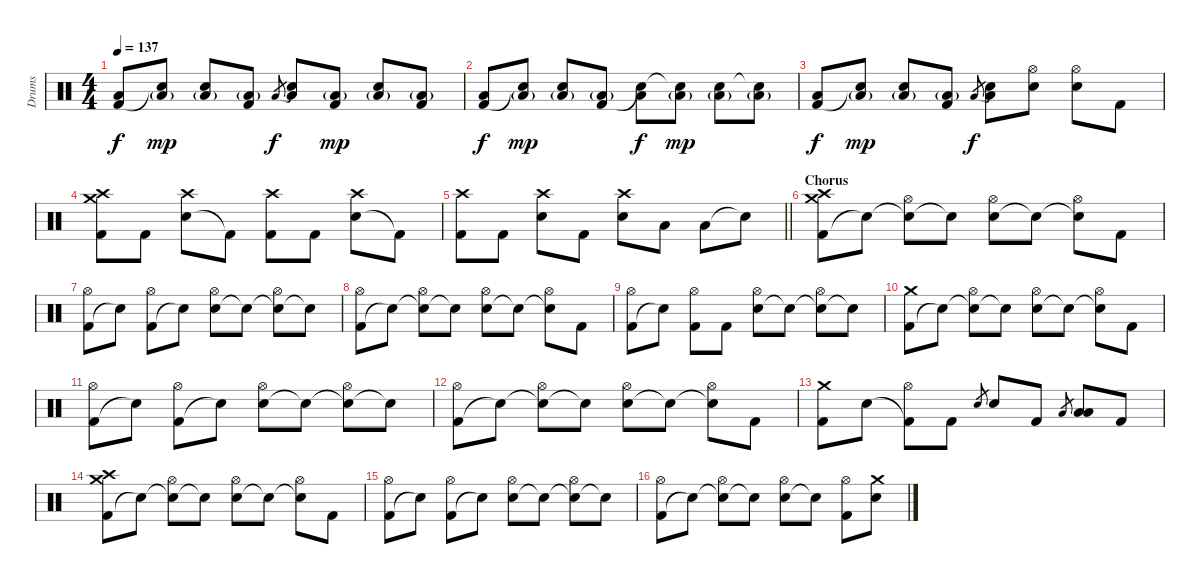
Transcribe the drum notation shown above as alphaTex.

\track ("Drums" "Drums") {instrument percussion}
\staff {score}
\articulation defaults
\ts (4 4)
\tempo 137
\clef neutral
\ks c
("Kick (hit) 2" "Low Floor Tom (hit)").8{dy f} ("Snare (hit)"{t} "Low Floor Tom (hit)"{g}).8{dy mp} ("Electric Snare (hit)" "Low Floor Tom (hit)"{g}).8 ("Kick (hit) 2" "Low Floor Tom (hit)"{g}).8 "Low Floor Tom (hit)".8{gr dy f} ("Snare (hit)"{t} "Low Floor Tom (hit)").8 ("Kick (hit) 2" "Low Floor Tom (hit)"{g}).8{dy mp} ("Electric Snare (hit)" "Low Floor Tom (hit)"{g}).8 ("Kick (hit) 2" "Low Floor Tom (hit)"{g}).8 |
("Kick (hit) 2" "Low Floor Tom (hit)").8{dy f} ("Snare (hit)"{t} "Low Floor Tom (hit)"{g}).8{dy mp} ("Electric Snare (hit)" "Low Floor Tom (hit)"{g}).8 ("Kick (hit) 2" "Low Floor Tom (hit)"{g}).8 ("Snare (hit)"{t} "Low Floor Tom (hit)").8{dy f} ("Snare (hit)"{t} "Low Floor Tom (hit)"{g}).8{dy mp} ("Electric Snare (hit)" "Low Floor Tom (hit)"{g}).8 ("Electric Snare (hit)"{t} "Low Floor Tom (hit)"{g}).8 |
("Kick (hit) 2" "Low Floor Tom (hit)").8{dy f} ("Snare (hit)"{t} "Low Floor Tom (hit)"{g}).8{dy mp} ("Electric Snare (hit)" "Low Floor Tom (hit)"{g}).8 ("Kick (hit) 2" "Low Floor Tom (hit)"{g}).8 "Low Floor Tom (hit)".8{gr dy f} ("Snare (hit)"{t} "Low Floor Tom (hit)").8 ("Electric Snare (hit)" "Hi-Hat (open)").8 ("Electric Snare (hit)" "Hi-Hat (open)").8 "Kick (hit) 2".8 |
("Kick (hit) 2" "Crash medium (hit)" "Crash high (hit)").8 "Kick (hit) 2".8 ("Electric Snare (hit)" "Crash high (hit)").8 "Kick (hit) 2"{t}.8 ("Kick (hit) 2" "Crash high (hit)").8 "Kick (hit) 2".8 ("Electric Snare (hit)" "Crash high (hit)").8 "Kick (hit) 2"{t}.8 |
\barLineRight lightlight
("Kick (hit) 2" "Crash high (hit)").8 "Kick (hit) 2".8 ("Electric Snare (hit)" "Crash high (hit)").8 "Kick (hit) 2".8 ("Electric Snare (hit)" "Crash high (hit)").8 "Low Tom (hit)".8 "Low Tom (hit)".8 "Snare (hit)"{t}.8 |
\section ("" "Chorus")
("Kick (hit) 2" "Crash medium (hit)" "Crash high (hit)").8 "Snare (hit)"{t}.8 ("Electric Snare (hit)"{t} "Hi-Hat (open)").8 "Snare (hit)"{t}.8 ("Electric Snare (hit)" "Hi-Hat (open)").8 "Snare (hit)"{t}.8 ("Snare (hit)"{t} "Hi-Hat (open)").8 "Kick (hit) 2".8 |
("Kick (hit) 2" "Hi-Hat (open)").8 "Snare (hit)"{t}.8 ("Kick (hit) 2" "Hi-Hat (open)").8 "Snare (hit)"{t}.8 ("Electric Snare (hit)" "Hi-Hat (open)").8 "Snare (hit)"{t}.8 ("Snare (hit)"{t} "Hi-Hat (open)").8 "Snare (hit)"{t}.8 |
("Kick (hit) 2" "Hi-Hat (open)").8 "Snare (hit)"{t}.8 ("Electric Snare (hit)"{t} "Hi-Hat (open)").8 "Snare (hit)"{t}.8 ("Electric Snare (hit)" "Hi-Hat (open)").8 "Snare (hit)"{t}.8 ("Snare (hit)"{t} "Hi-Hat (open)").8 "Kick (hit) 2".8 |
("Kick (hit) 2" "Hi-Hat (open)").8 "Snare (hit)"{t}.8 ("Kick (hit) 2" "Hi-Hat (open)").8 "Kick (hit) 2".8 ("Electric Snare (hit)" "Hi-Hat (open)").8 "Snare (hit)"{t}.8 ("Snare (hit)"{t} "Hi-Hat (open)").8 "Snare (hit)"{t}.8 |
("Kick (hit) 2" "Crash medium (hit)").8 "Snare (hit)"{t}.8 ("Electric Snare (hit)"{t} "Hi-Hat (open)").8 "Snare (hit)"{t}.8 ("Electric Snare (hit)" "Hi-Hat (open)").8 "Snare (hit)"{t}.8 ("Snare (hit)"{t} "Hi-Hat (open)").8 "Kick (hit) 2".8 |
("Kick (hit) 2" "Hi-Hat (open)").8 "Snare (hit)"{t}.8 ("Kick (hit) 2" "Hi-Hat (open)").8 "Snare (hit)"{t}.8 ("Electric Snare (hit)" "Hi-Hat (open)").8 "Snare (hit)"{t}.8 ("Snare (hit)"{t} "Hi-Hat (open)").8 "Snare (hit)"{t}.8 |
("Kick (hit) 2" "Hi-Hat (open)").8 "Snare (hit)"{t}.8 ("Electric Snare (hit)"{t} "Hi-Hat (open)").8 "Snare (hit)"{t}.8 ("Electric Snare (hit)" "Hi-Hat (open)").8 "Snare (hit)"{t}.8 ("Snare (hit)"{t} "Hi-Hat (open)").8 "Kick (hit) 2".8 |
("Kick (hit) 2" "Crash medium (hit)").8 "Electric Snare (hit)".8 ("Kick (hit) 2"{t} "Hi-Hat (open)").8 "Kick (hit) 2".8 "Electric Snare (hit)".8{gr} "Electric Snare (hit)".8 "Kick (hit) 2".8 "Low Tom (hit)".8{gr} ("Low Tom (hit)" "Low Floor Tom (hit)").8 "Kick (hit) 2".8 |
("Kick (hit) 2" "Crash medium (hit)" "Crash high (hit)").8 "Snare (hit)"{t}.8 ("Electric Snare (hit)"{t} "Hi-Hat (open)").8 "Snare (hit)"{t}.8 ("Electric Snare (hit)" "Hi-Hat (open)").8 "Snare (hit)"{t}.8 ("Snare (hit)"{t} "Hi-Hat (open)").8 "Kick (hit) 2".8 |
("Kick (hit) 2" "Hi-Hat (open)").8 "Snare (hit)"{t}.8 ("Kick (hit) 2" "Hi-Hat (open)").8 "Snare (hit)"{t}.8 ("Electric Snare (hit)" "Hi-Hat (open)").8 "Snare (hit)"{t}.8 ("Snare (hit)"{t} "Hi-Hat (open)").8 "Snare (hit)"{t}.8 |
("Kick (hit) 2" "Hi-Hat (open)").8 "Snare (hit)"{t}.8 ("Electric Snare (hit)"{t} "Hi-Hat (open)").8 "Snare (hit)"{t}.8 ("Electric Snare (hit)" "Hi-Hat (open)").8 "Snare (hit)"{t}.8 ("Kick (hit) 2" "Hi-Hat (open)").8 ("Electric Snare (hit)" "Crash medium (hit)").8
